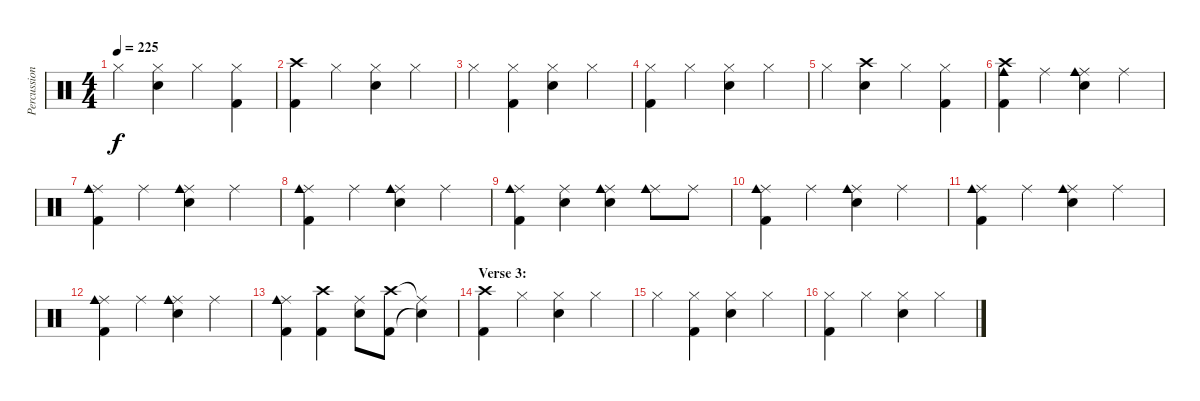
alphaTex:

\track ("Percussion" "Percussion") {instrument percussion}
\staff {score}
\articulation defaults
\ts (4 4)
\tempo 225
\clef neutral
\ks c "Hi-Hat (closed)".4{dy f}
("Hi-Hat (closed)" "Electric Snare (hit)").4 "Hi-Hat (closed)".4 ("Hi-Hat (closed)" "Kick (hit) 2").4 |
("Crash high (hit)" "Kick (hit) 2").4 "Hi-Hat (closed)".4 ("Hi-Hat (closed)" "Electric Snare (hit)").4 "Hi-Hat (closed)".4 |
"Hi-Hat (closed)".4 ("Hi-Hat (closed)" "Kick (hit) 2").4 ("Hi-Hat (closed)" "Electric Snare (hit)").4 "Hi-Hat (closed)".4 |
("Hi-Hat (closed)" "Kick (hit) 2").4 "Hi-Hat (closed)".4 ("Hi-Hat (closed)" "Electric Snare (hit)").4 "Hi-Hat (closed)".4 |
"Hi-Hat (closed)".4 ("Crash high (hit)" "Electric Snare (hit)").4 "Hi-Hat (closed)".4 ("Hi-Hat (closed)" "Kick (hit) 2").4 |
("Crash high (hit)" "Cowbell medium (hit)" "Kick (hit) 2").4 "Ride (middle)".4 ("Ride (middle)" "Cowbell medium (hit)" "Electric Snare (hit)").4 "Ride (middle)".4 |
("Ride (middle)" "Cowbell medium (hit)" "Kick (hit) 2").4 "Ride (middle)".4 ("Ride (middle)" "Cowbell medium (hit)" "Electric Snare (hit)").4 "Ride (middle)".4 |
("Ride (middle)" "Cowbell medium (hit)" "Kick (hit) 2").4 "Ride (middle)".4 ("Ride (middle)" "Cowbell medium (hit)" "Electric Snare (hit)").4 "Ride (middle)".4 |
("Ride (middle)" "Cowbell medium (hit)" "Kick (hit) 2").4 ("Ride (middle)" "Electric Snare (hit)").4 ("Ride (middle)" "Cowbell medium (hit)" "Electric Snare (hit)").4 ("Ride (middle)" "Cowbell medium (hit)").8 "Ride (middle)".8 |
("Ride (middle)" "Cowbell medium (hit)" "Kick (hit) 2").4 "Ride (middle)".4 ("Ride (middle)" "Cowbell medium (hit)" "Electric Snare (hit)").4 "Ride (middle)".4 |
("Ride (middle)" "Cowbell medium (hit)" "Kick (hit) 2").4 "Ride (middle)".4 ("Ride (middle)" "Cowbell medium (hit)" "Electric Snare (hit)").4 "Ride (middle)".4 |
("Ride (middle)" "Cowbell medium (hit)" "Kick (hit) 2").4 "Ride (middle)".4 ("Ride (middle)" "Cowbell medium (hit)" "Electric Snare (hit)").4 "Ride (middle)".4 |
("Ride (middle)" "Cowbell medium (hit)" "Kick (hit) 2").4 ("Crash high (hit)" "Kick (hit) 2").4 ("Ride (middle)" "Electric Snare (hit)").8 ("Crash high (hit)" "Kick (hit) 2").8 ("Ride (middle)"{t} "Snare (hit)"{t}).4 |
\section ("" "Verse 3:")
("Crash high (hit)" "Kick (hit) 2").4 "Hi-Hat (closed)".4 ("Hi-Hat (closed)" "Electric Snare (hit)").4 "Hi-Hat (closed)".4 |
"Hi-Hat (closed)".4 ("Hi-Hat (closed)" "Kick (hit) 2").4 ("Hi-Hat (closed)" "Electric Snare (hit)").4 "Hi-Hat (closed)".4 |
("Hi-Hat (closed)" "Kick (hit) 2").4 "Hi-Hat (closed)".4 ("Hi-Hat (closed)" "Electric Snare (hit)").4 "Hi-Hat (closed)".4
